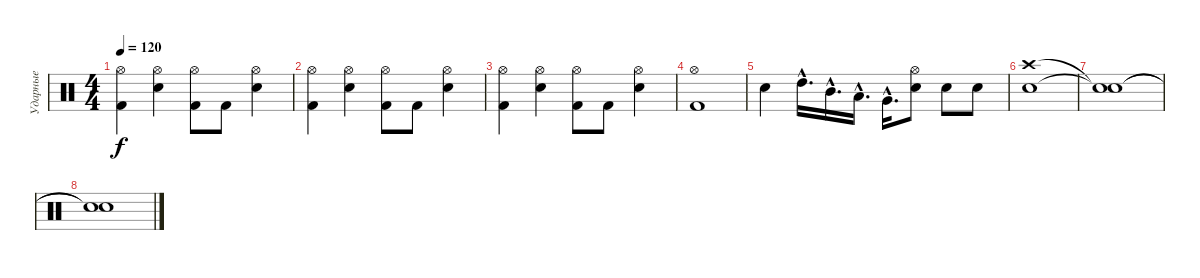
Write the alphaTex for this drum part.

\track ("Ударные" "Ударные") {instrument percussion}
\staff {score}
\articulation defaults
\ts (4 4)
\tempo 120
\clef neutral
\ks c
("Kick (hit) 2" "Hi-Hat (open)").4{dy f} ("Snare (hit) 2" "Hi-Hat (open)").4 ("Kick (hit) 2" "Hi-Hat (open)").8 "Kick (hit) 2".8 ("Snare (hit) 2" "Hi-Hat (open)").4 |
("Kick (hit) 2" "Hi-Hat (open)").4 ("Snare (hit) 2" "Hi-Hat (open)").4 ("Kick (hit) 2" "Hi-Hat (open)").8 "Kick (hit) 2".8 ("Snare (hit) 2" "Hi-Hat (open)").4 |
("Kick (hit) 2" "Hi-Hat (open)").4 ("Snare (hit) 2" "Hi-Hat (open)").4 ("Kick (hit) 2" "Hi-Hat (open)").8 "Kick (hit) 2".8 ("Snare (hit) 2" "Hi-Hat (open)").4 |
("Kick (hit) 2" "Hi-Hat (open)").1 |
"Snare (hit) 2".4 "High Tom (hit)"{hac}.16{d} "Mid Tom (hit)"{hac}.16{d} "Low Tom (hit)"{hac}.16{d} "Very Low Tom (hit)"{hac}.16{d} ("Snare (hit) 2" "Hi-Hat (open)").8 "Snare (hit) 2".8 "Snare (hit) 2".8 |
("Crash high (hit)" "Snare (hit) 2").1 |
("Snare (hit)"{t} "Snare (hit)"{t}).1 |
("Snare (hit)"{t} "Snare (hit)"{t}).1
